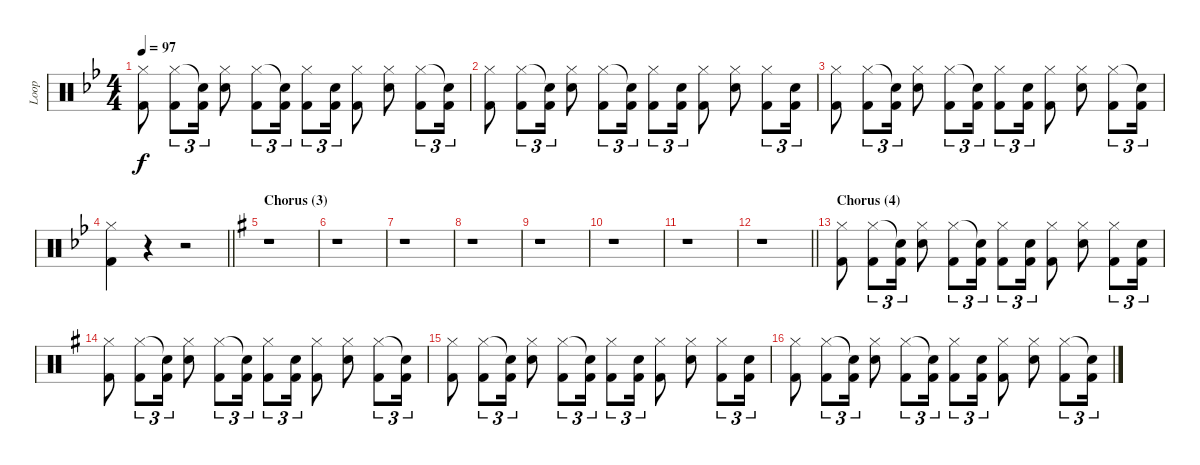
\track ("Loop" "Loop") {instrument percussion}
\staff {score}
\articulation defaults
\ts (4 4)
\tempo 97
\clef neutral
\ks bb
("Hi-Hat (closed)" "Kick (hit) 2").8{dy f} ("Hi-Hat (closed)" "Kick (hit) 2").8{tu (3 2)} ("Snare (hit)"{t} "Kick (hit) 2").16{tu (3 2)} ("Hi-Hat (closed)" "Electric Snare (hit)").8 ("Hi-Hat (closed)" "Kick (hit) 2").8{tu (3 2)} ("Snare (hit)"{t} "Kick (hit) 2").16{tu (3 2)} ("Hi-Hat (closed)" "Kick (hit) 2").8{tu (3 2)} ("Electric Snare (hit)" "Kick (hit) 2").16{tu (3 2)} ("Hi-Hat (closed)" "Kick (hit) 2").8 ("Hi-Hat (closed)" "Electric Snare (hit)").8 ("Hi-Hat (closed)" "Kick (hit) 2").8{tu (3 2)} ("Snare (hit)"{t} "Kick (hit) 2").16{tu (3 2)} |
("Hi-Hat (closed)" "Kick (hit) 2").8 ("Hi-Hat (closed)" "Kick (hit) 2").8{tu (3 2)} ("Snare (hit)"{t} "Kick (hit) 2").16{tu (3 2)} ("Hi-Hat (closed)" "Electric Snare (hit)").8 ("Hi-Hat (closed)" "Kick (hit) 2").8{tu (3 2)} ("Snare (hit)"{t} "Kick (hit) 2").16{tu (3 2)} ("Hi-Hat (closed)" "Kick (hit) 2").8{tu (3 2)} ("Electric Snare (hit)" "Kick (hit) 2").16{tu (3 2)} ("Hi-Hat (closed)" "Kick (hit) 2").8 ("Hi-Hat (closed)" "Electric Snare (hit)").8 ("Hi-Hat (closed)" "Kick (hit) 2").8{tu (3 2)} ("Electric Snare (hit)" "Kick (hit) 2").16{tu (3 2)} |
("Hi-Hat (closed)" "Kick (hit) 2").8 ("Hi-Hat (closed)" "Kick (hit) 2").8{tu (3 2)} ("Snare (hit)"{t} "Kick (hit) 2").16{tu (3 2)} ("Hi-Hat (closed)" "Electric Snare (hit)").8 ("Hi-Hat (closed)" "Kick (hit) 2").8{tu (3 2)} ("Snare (hit)"{t} "Kick (hit) 2").16{tu (3 2)} ("Hi-Hat (closed)" "Kick (hit) 2").8{tu (3 2)} ("Electric Snare (hit)" "Kick (hit) 2").16{tu (3 2)} ("Hi-Hat (closed)" "Kick (hit) 2").8 ("Hi-Hat (closed)" "Electric Snare (hit)").8 ("Hi-Hat (closed)" "Kick (hit) 2").8{tu (3 2)} ("Snare (hit)"{t} "Kick (hit) 2").16{tu (3 2)} |
\barLineRight lightlight
("Hi-Hat (closed)" "Kick (hit) 2").4 r.4 r.2 |
\section ("" "Chorus (3)")
\ks g
r.1 |
r.1 |
r.1 |
r.1 |
r.1 |
r.1 |
r.1 |
\barLineRight lightlight
r.1 |
\section ("" "Chorus (4)")
("Hi-Hat (closed)" "Kick (hit) 2").8 ("Hi-Hat (closed)" "Kick (hit) 2").8{tu (3 2)} ("Snare (hit)"{t} "Kick (hit) 2").16{tu (3 2)} ("Hi-Hat (closed)" "Electric Snare (hit)").8 ("Hi-Hat (closed)" "Kick (hit) 2").8{tu (3 2)} ("Snare (hit)"{t} "Kick (hit) 2").16{tu (3 2)} ("Hi-Hat (closed)" "Kick (hit) 2").8{tu (3 2)} ("Electric Snare (hit)" "Kick (hit) 2").16{tu (3 2)} ("Hi-Hat (closed)" "Kick (hit) 2").8 ("Hi-Hat (closed)" "Electric Snare (hit)").8 ("Hi-Hat (closed)" "Kick (hit) 2").8{tu (3 2)} ("Electric Snare (hit)" "Kick (hit) 2").16{tu (3 2)} |
("Hi-Hat (closed)" "Kick (hit) 2").8 ("Hi-Hat (closed)" "Kick (hit) 2").8{tu (3 2)} ("Snare (hit)"{t} "Kick (hit) 2").16{tu (3 2)} ("Hi-Hat (closed)" "Electric Snare (hit)").8 ("Hi-Hat (closed)" "Kick (hit) 2").8{tu (3 2)} ("Snare (hit)"{t} "Kick (hit) 2").16{tu (3 2)} ("Hi-Hat (closed)" "Kick (hit) 2").8{tu (3 2)} ("Electric Snare (hit)" "Kick (hit) 2").16{tu (3 2)} ("Hi-Hat (closed)" "Kick (hit) 2").8 ("Hi-Hat (closed)" "Electric Snare (hit)").8 ("Hi-Hat (closed)" "Kick (hit) 2").8{tu (3 2)} ("Snare (hit)"{t} "Kick (hit) 2").16{tu (3 2)} |
("Hi-Hat (closed)" "Kick (hit) 2").8 ("Hi-Hat (closed)" "Kick (hit) 2").8{tu (3 2)} ("Snare (hit)"{t} "Kick (hit) 2").16{tu (3 2)} ("Hi-Hat (closed)" "Electric Snare (hit)").8 ("Hi-Hat (closed)" "Kick (hit) 2").8{tu (3 2)} ("Snare (hit)"{t} "Kick (hit) 2").16{tu (3 2)} ("Hi-Hat (closed)" "Kick (hit) 2").8{tu (3 2)} ("Electric Snare (hit)" "Kick (hit) 2").16{tu (3 2)} ("Hi-Hat (closed)" "Kick (hit) 2").8 ("Hi-Hat (closed)" "Electric Snare (hit)").8 ("Hi-Hat (closed)" "Kick (hit) 2").8{tu (3 2)} ("Electric Snare (hit)" "Kick (hit) 2").16{tu (3 2)} |
("Hi-Hat (closed)" "Kick (hit) 2").8 ("Hi-Hat (closed)" "Kick (hit) 2").8{tu (3 2)} ("Snare (hit)"{t} "Kick (hit) 2").16{tu (3 2)} ("Hi-Hat (closed)" "Electric Snare (hit)").8 ("Hi-Hat (closed)" "Kick (hit) 2").8{tu (3 2)} ("Snare (hit)"{t} "Kick (hit) 2").16{tu (3 2)} ("Hi-Hat (closed)" "Kick (hit) 2").8{tu (3 2)} ("Electric Snare (hit)" "Kick (hit) 2").16{tu (3 2)} ("Hi-Hat (closed)" "Kick (hit) 2").8 ("Hi-Hat (closed)" "Electric Snare (hit)").8 ("Hi-Hat (closed)" "Kick (hit) 2").8{tu (3 2)} ("Snare (hit)"{t} "Kick (hit) 2").16{tu (3 2)}
